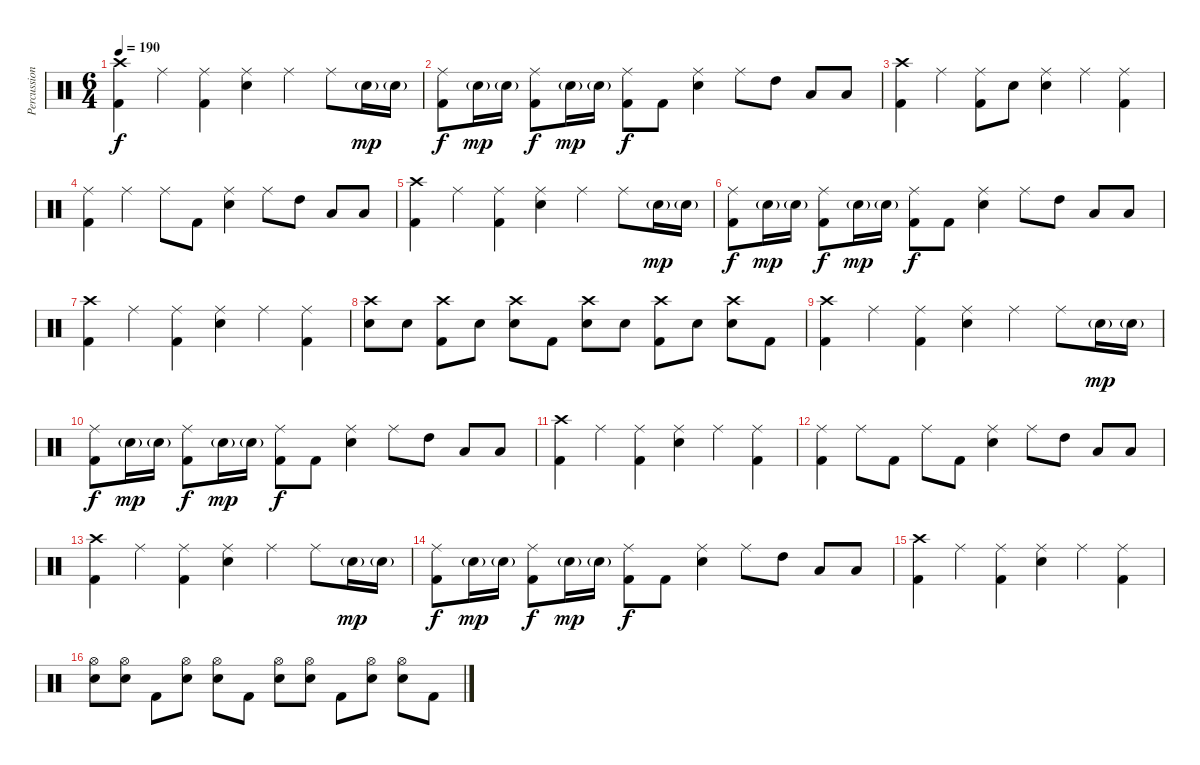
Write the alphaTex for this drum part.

\track ("Percussion" "Percussion") {instrument percussion}
\staff {score}
\articulation defaults
\ts (6 4)
\tempo 190
\clef neutral
\ks c
("Crash high (hit)" "Kick (hit) 2").4{dy f} "Ride (middle)".4 ("Ride (middle)" "Kick (hit) 2").4 ("Ride (middle)" "Electric Snare (hit)").4 "Ride (middle)".4 "Ride (middle)".8 "Electric Snare (hit)"{g}.16{dy mp} "Electric Snare (hit)"{g}.16 |
("Ride (middle)" "Kick (hit) 2").8{dy f} "Electric Snare (hit)"{g}.16{dy mp} "Electric Snare (hit)"{g}.16 ("Ride (middle)" "Kick (hit) 2").8{dy f} "Electric Snare (hit)"{g}.16{dy mp} "Electric Snare (hit)"{g}.16 ("Ride (middle)" "Kick (hit) 2").8{dy f} "Kick (hit) 2".8 ("Ride (middle)" "Electric Snare (hit)").4 "Ride (middle)".8 "High Tom (hit)".8 "Low Tom (hit)".8 "Low Tom (hit)".8 |
("Crash high (hit)" "Kick (hit) 2").4 "Ride (middle)".4 ("Ride (middle)" "Kick (hit) 2").8 "Electric Snare (hit)".8 ("Ride (middle)" "Electric Snare (hit)").4 "Ride (middle)".4 ("Ride (middle)" "Kick (hit) 2").4 |
("Ride (middle)" "Kick (hit) 2").4 "Ride (middle)".4 "Ride (middle)".8 "Kick (hit) 2".8 ("Ride (middle)" "Electric Snare (hit)").4 "Ride (middle)".8 "High Tom (hit)".8 "Low Tom (hit)".8 "Low Tom (hit)".8 |
("Crash high (hit)" "Kick (hit) 2").4 "Ride (middle)".4 ("Ride (middle)" "Kick (hit) 2").4 ("Ride (middle)" "Electric Snare (hit)").4 "Ride (middle)".4 "Ride (middle)".8 "Electric Snare (hit)"{g}.16{dy mp} "Electric Snare (hit)"{g}.16 |
("Ride (middle)" "Kick (hit) 2").8{dy f} "Electric Snare (hit)"{g}.16{dy mp} "Electric Snare (hit)"{g}.16 ("Ride (middle)" "Kick (hit) 2").8{dy f} "Electric Snare (hit)"{g}.16{dy mp} "Electric Snare (hit)"{g}.16 ("Ride (middle)" "Kick (hit) 2").8{dy f} "Kick (hit) 2".8 ("Ride (middle)" "Electric Snare (hit)").4 "Ride (middle)".8 "High Tom (hit)".8 "Low Tom (hit)".8 "Low Tom (hit)".8 |
("Crash high (hit)" "Kick (hit) 2").4 "Ride (middle)".4 ("Ride (middle)" "Kick (hit) 2").4 ("Ride (middle)" "Electric Snare (hit)").4 "Ride (middle)".4 ("Ride (middle)" "Kick (hit) 2").4 |
("Crash high (hit)" "Electric Snare (hit)").8 "Electric Snare (hit)".8 ("Crash high (hit)" "Kick (hit) 2").8 "Electric Snare (hit)".8 ("Crash high (hit)" "Electric Snare (hit)").8 "Kick (hit) 2".8 ("Crash high (hit)" "Electric Snare (hit)").8 "Electric Snare (hit)".8 ("Crash high (hit)" "Kick (hit) 2").8 "Electric Snare (hit)".8 ("Crash high (hit)" "Electric Snare (hit)").8 "Kick (hit) 2".8 |
("Crash high (hit)" "Kick (hit) 2").4 "Ride (middle)".4 ("Ride (middle)" "Kick (hit) 2").4 ("Ride (middle)" "Electric Snare (hit)").4 "Ride (middle)".4 "Ride (middle)".8 "Electric Snare (hit)"{g}.16{dy mp} "Electric Snare (hit)"{g}.16 |
("Ride (middle)" "Kick (hit) 2").8{dy f} "Electric Snare (hit)"{g}.16{dy mp} "Electric Snare (hit)"{g}.16 ("Ride (middle)" "Kick (hit) 2").8{dy f} "Electric Snare (hit)"{g}.16{dy mp} "Electric Snare (hit)"{g}.16 ("Ride (middle)" "Kick (hit) 2").8{dy f} "Kick (hit) 2".8 ("Ride (middle)" "Electric Snare (hit)").4 "Ride (middle)".8 "High Tom (hit)".8 "Low Tom (hit)".8 "Low Tom (hit)".8 |
("Crash high (hit)" "Kick (hit) 2").4 "Ride (middle)".4 ("Ride (middle)" "Kick (hit) 2").4 ("Ride (middle)" "Electric Snare (hit)").4 "Ride (middle)".4 ("Ride (middle)" "Kick (hit) 2").4 |
("Ride (middle)" "Kick (hit) 2").4 "Ride (middle)".8 "Kick (hit) 2".8 "Ride (middle)".8 "Kick (hit) 2".8 ("Ride (middle)" "Electric Snare (hit)").4 "Ride (middle)".8 "High Tom (hit)".8 "Low Tom (hit)".8 "Low Tom (hit)".8 |
("Crash high (hit)" "Kick (hit) 2").4 "Ride (middle)".4 ("Ride (middle)" "Kick (hit) 2").4 ("Ride (middle)" "Electric Snare (hit)").4 "Ride (middle)".4 "Ride (middle)".8 "Electric Snare (hit)"{g}.16{dy mp} "Electric Snare (hit)"{g}.16 |
("Ride (middle)" "Kick (hit) 2").8{dy f} "Electric Snare (hit)"{g}.16{dy mp} "Electric Snare (hit)"{g}.16 ("Ride (middle)" "Kick (hit) 2").8{dy f} "Electric Snare (hit)"{g}.16{dy mp} "Electric Snare (hit)"{g}.16 ("Ride (middle)" "Kick (hit) 2").8{dy f} "Kick (hit) 2".8 ("Ride (middle)" "Electric Snare (hit)").4 "Ride (middle)".8 "High Tom (hit)".8 "Low Tom (hit)".8 "Low Tom (hit)".8 |
("Crash high (hit)" "Kick (hit) 2").4 "Ride (middle)".4 ("Ride (middle)" "Kick (hit) 2").4 ("Ride (middle)" "Electric Snare (hit)").4 "Ride (middle)".4 ("Ride (middle)" "Kick (hit) 2").4 |
("Hi-Hat (open)" "Electric Snare (hit)").8 ("Hi-Hat (open)" "Electric Snare (hit)").8 "Kick (hit) 2".8 ("Hi-Hat (open)" "Electric Snare (hit)").8 ("Hi-Hat (open)" "Electric Snare (hit)").8 "Kick (hit) 2".8 ("Hi-Hat (open)" "Electric Snare (hit)").8 ("Hi-Hat (open)" "Electric Snare (hit)").8 "Kick (hit) 2".8 ("Hi-Hat (open)" "Electric Snare (hit)").8 ("Hi-Hat (open)" "Electric Snare (hit)").8 "Kick (hit) 2".8
